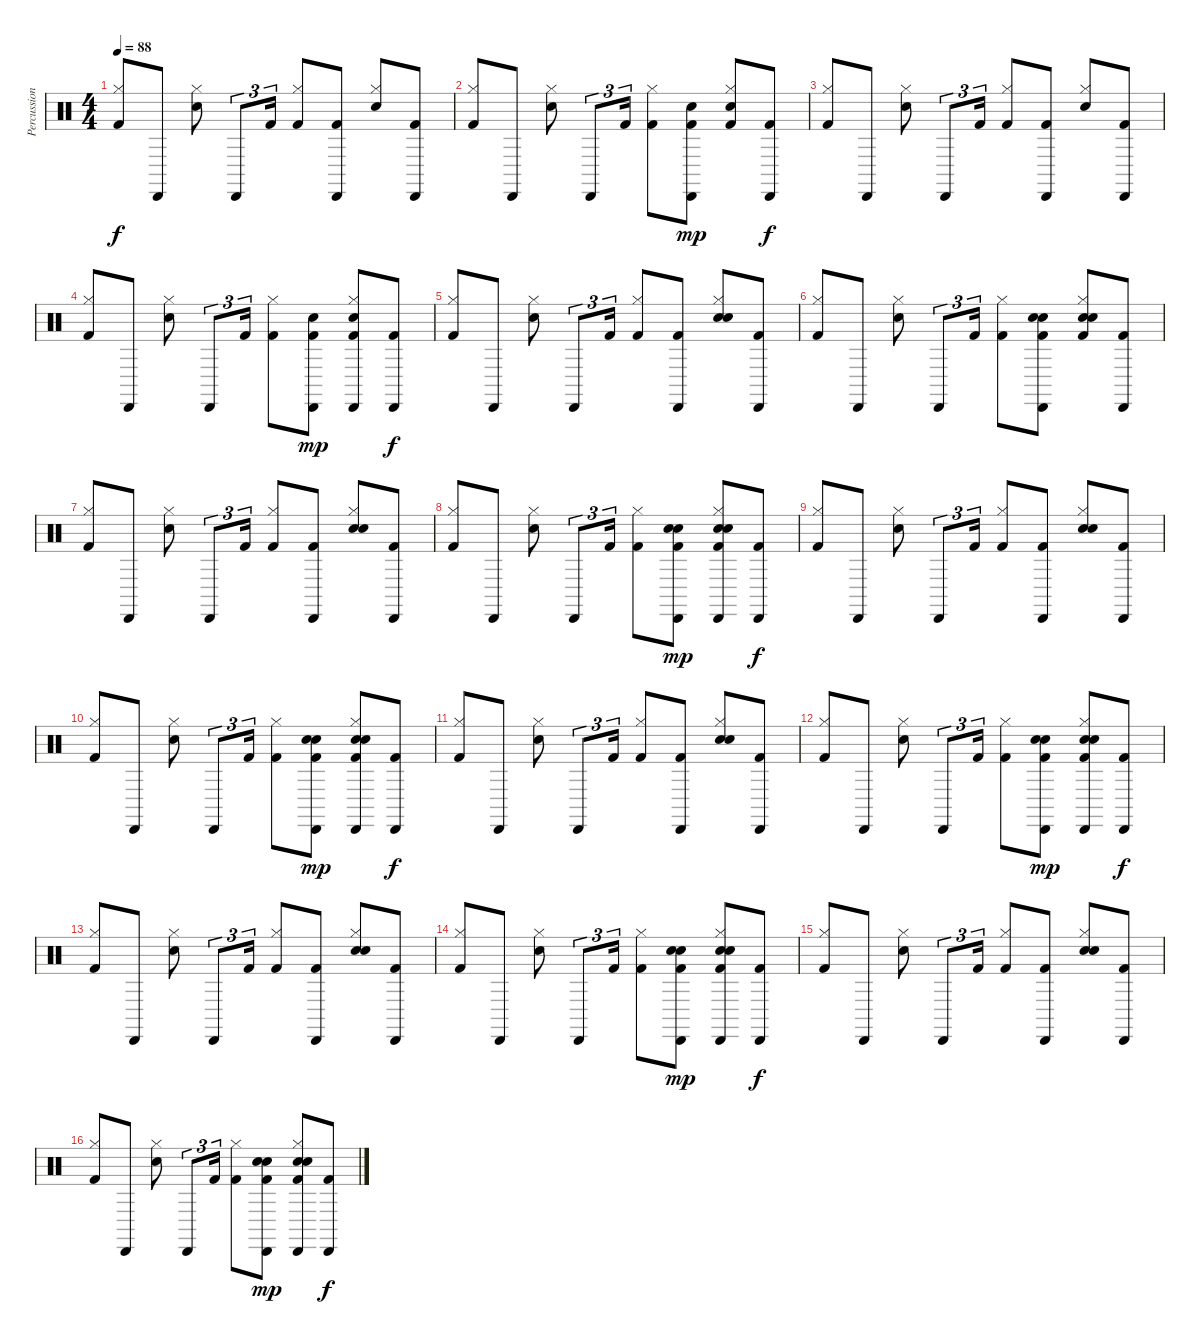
\track ("Percussion" "Percussion") {instrument percussion}
\staff {score}
\articulation defaults
\ts (4 4)
\tempo 88
\clef neutral
\ks c
("Hi-Hat (closed)" "Kick (hit) 2").8{dy f} "Cabasa (hit)".8 ("Hi-Hat (closed)" "Electric Snare (hit)").8 "Cabasa (hit)".8{tu (3 2)} "Kick (hit) 2".16{tu (3 2)} ("Hi-Hat (closed)" "Kick (hit) 2").8 ("Cabasa (hit)" "Kick (hit) 2").8 ("Hi-Hat (closed)" "Electric Snare (hit)").8 ("Cabasa (hit)" "Kick (hit) 2").8 |
("Hi-Hat (closed)" "Kick (hit) 2").8 "Cabasa (hit)".8 ("Hi-Hat (closed)" "Electric Snare (hit)").8 "Cabasa (hit)".8{tu (3 2)} "Kick (hit) 2".16{tu (3 2)} ("Hi-Hat (closed)" "Kick (hit) 2").8 ("Cabasa (hit)" "Electric Snare (hit)" "Kick (hit) 2").8{dy mp} ("Hi-Hat (closed)" "Electric Snare (hit)" "Kick (hit) 2").8 ("Cabasa (hit)" "Kick (hit) 2").8{dy f} |
("Hi-Hat (closed)" "Kick (hit) 2").8 "Cabasa (hit)".8 ("Hi-Hat (closed)" "Electric Snare (hit)").8 "Cabasa (hit)".8{tu (3 2)} "Kick (hit) 2".16{tu (3 2)} ("Hi-Hat (closed)" "Kick (hit) 2").8 ("Cabasa (hit)" "Kick (hit) 2").8 ("Hi-Hat (closed)" "Electric Snare (hit)").8 ("Cabasa (hit)" "Kick (hit) 2").8 |
("Hi-Hat (closed)" "Kick (hit) 2").8 "Cabasa (hit)".8 ("Hi-Hat (closed)" "Electric Snare (hit)").8 "Cabasa (hit)".8{tu (3 2)} "Kick (hit) 2".16{tu (3 2)} ("Hi-Hat (closed)" "Kick (hit) 2").8 ("Cabasa (hit)" "Electric Snare (hit)" "Kick (hit) 2").8{dy mp} ("Cabasa (hit)" "Hi-Hat (closed)" "Electric Snare (hit)" "Kick (hit) 2").8 ("Cabasa (hit)" "Kick (hit) 2").8{dy f} |
("Hi-Hat (closed)" "Kick (hit) 2").8 "Cabasa (hit)".8 ("Hi-Hat (closed)" "Electric Snare (hit)").8 "Cabasa (hit)".8{tu (3 2)} "Kick (hit) 2".16{tu (3 2)} ("Hi-Hat (closed)" "Kick (hit) 2").8 ("Cabasa (hit)" "Kick (hit) 2").8 ("Hi-Hat (closed)" "Electric Snare (hit)" "Hand Clap (hit)").8 ("Cabasa (hit)" "Kick (hit) 2").8 |
("Hi-Hat (closed)" "Kick (hit) 2").8 "Cabasa (hit)".8 ("Hi-Hat (closed)" "Electric Snare (hit)").8 "Cabasa (hit)".8{tu (3 2)} "Kick (hit) 2".16{tu (3 2)} ("Hi-Hat (closed)" "Kick (hit) 2").8 ("Cabasa (hit)" "Electric Snare (hit)" "Hand Clap (hit)" "Kick (hit) 2").8 ("Hi-Hat (closed)" "Electric Snare (hit)" "Hand Clap (hit)" "Kick (hit) 2").8 ("Cabasa (hit)" "Kick (hit) 2").8 |
("Hi-Hat (closed)" "Kick (hit) 2").8 "Cabasa (hit)".8 ("Hi-Hat (closed)" "Electric Snare (hit)").8 "Cabasa (hit)".8{tu (3 2)} "Kick (hit) 2".16{tu (3 2)} ("Hi-Hat (closed)" "Kick (hit) 2").8 ("Cabasa (hit)" "Kick (hit) 2").8 ("Hi-Hat (closed)" "Electric Snare (hit)" "Hand Clap (hit)").8 ("Cabasa (hit)" "Kick (hit) 2").8 |
("Hi-Hat (closed)" "Kick (hit) 2").8 "Cabasa (hit)".8 ("Hi-Hat (closed)" "Electric Snare (hit)").8 "Cabasa (hit)".8{tu (3 2)} "Kick (hit) 2".16{tu (3 2)} ("Hi-Hat (closed)" "Kick (hit) 2").8 ("Cabasa (hit)" "Electric Snare (hit)" "Hand Clap (hit)" "Kick (hit) 2").8{dy mp} ("Cabasa (hit)" "Hi-Hat (closed)" "Electric Snare (hit)" "Hand Clap (hit)" "Kick (hit) 2").8 ("Cabasa (hit)" "Kick (hit) 2").8{dy f} |
("Hi-Hat (closed)" "Kick (hit) 2").8 "Cabasa (hit)".8 ("Hi-Hat (closed)" "Electric Snare (hit)").8 "Cabasa (hit)".8{tu (3 2)} "Kick (hit) 2".16{tu (3 2)} ("Hi-Hat (closed)" "Kick (hit) 2").8 ("Cabasa (hit)" "Kick (hit) 2").8 ("Hi-Hat (closed)" "Electric Snare (hit)" "Hand Clap (hit)").8 ("Cabasa (hit)" "Kick (hit) 2").8 |
("Hi-Hat (closed)" "Kick (hit) 2").8 "Cabasa (hit)".8 ("Hi-Hat (closed)" "Electric Snare (hit)").8 "Cabasa (hit)".8{tu (3 2)} "Kick (hit) 2".16{tu (3 2)} ("Hi-Hat (closed)" "Kick (hit) 2").8 ("Cabasa (hit)" "Electric Snare (hit)" "Hand Clap (hit)" "Kick (hit) 2").8{dy mp} ("Cabasa (hit)" "Hi-Hat (closed)" "Electric Snare (hit)" "Hand Clap (hit)" "Kick (hit) 2").8 ("Cabasa (hit)" "Kick (hit) 2").8{dy f} |
("Hi-Hat (closed)" "Kick (hit) 2").8 "Cabasa (hit)".8 ("Hi-Hat (closed)" "Electric Snare (hit)").8 "Cabasa (hit)".8{tu (3 2)} "Kick (hit) 2".16{tu (3 2)} ("Hi-Hat (closed)" "Kick (hit) 2").8 ("Cabasa (hit)" "Kick (hit) 2").8 ("Hi-Hat (closed)" "Electric Snare (hit)" "Hand Clap (hit)").8 ("Cabasa (hit)" "Kick (hit) 2").8 |
("Hi-Hat (closed)" "Kick (hit) 2").8 "Cabasa (hit)".8 ("Hi-Hat (closed)" "Electric Snare (hit)").8 "Cabasa (hit)".8{tu (3 2)} "Kick (hit) 2".16{tu (3 2)} ("Hi-Hat (closed)" "Kick (hit) 2").8 ("Cabasa (hit)" "Electric Snare (hit)" "Hand Clap (hit)" "Kick (hit) 2").8{dy mp} ("Cabasa (hit)" "Hi-Hat (closed)" "Electric Snare (hit)" "Hand Clap (hit)" "Kick (hit) 2").8 ("Cabasa (hit)" "Kick (hit) 2").8{dy f} |
("Hi-Hat (closed)" "Kick (hit) 2").8{volume 0} "Cabasa (hit)".8 ("Hi-Hat (closed)" "Electric Snare (hit)").8 "Cabasa (hit)".8{tu (3 2)} "Kick (hit) 2".16{tu (3 2)} ("Hi-Hat (closed)" "Kick (hit) 2").8 ("Cabasa (hit)" "Kick (hit) 2").8 ("Hi-Hat (closed)" "Electric Snare (hit)" "Hand Clap (hit)").8 ("Cabasa (hit)" "Kick (hit) 2").8 |
("Hi-Hat (closed)" "Kick (hit) 2").8 "Cabasa (hit)".8 ("Hi-Hat (closed)" "Electric Snare (hit)").8 "Cabasa (hit)".8{tu (3 2)} "Kick (hit) 2".16{tu (3 2)} ("Hi-Hat (closed)" "Kick (hit) 2").8 ("Cabasa (hit)" "Electric Snare (hit)" "Hand Clap (hit)" "Kick (hit) 2").8{dy mp} ("Cabasa (hit)" "Hi-Hat (closed)" "Electric Snare (hit)" "Hand Clap (hit)" "Kick (hit) 2").8 ("Cabasa (hit)" "Kick (hit) 2").8{dy f} |
("Hi-Hat (closed)" "Kick (hit) 2").8 "Cabasa (hit)".8 ("Hi-Hat (closed)" "Electric Snare (hit)").8 "Cabasa (hit)".8{tu (3 2)} "Kick (hit) 2".16{tu (3 2)} ("Hi-Hat (closed)" "Kick (hit) 2").8 ("Cabasa (hit)" "Kick (hit) 2").8 ("Hi-Hat (closed)" "Electric Snare (hit)" "Hand Clap (hit)").8 ("Cabasa (hit)" "Kick (hit) 2").8 |
("Hi-Hat (closed)" "Kick (hit) 2").8 "Cabasa (hit)".8 ("Hi-Hat (closed)" "Electric Snare (hit)").8 "Cabasa (hit)".8{tu (3 2)} "Kick (hit) 2".16{tu (3 2)} ("Hi-Hat (closed)" "Kick (hit) 2").8 ("Cabasa (hit)" "Electric Snare (hit)" "Hand Clap (hit)" "Kick (hit) 2").8{dy mp} ("Cabasa (hit)" "Hi-Hat (closed)" "Electric Snare (hit)" "Hand Clap (hit)" "Kick (hit) 2").8 ("Cabasa (hit)" "Kick (hit) 2").8{dy f}
